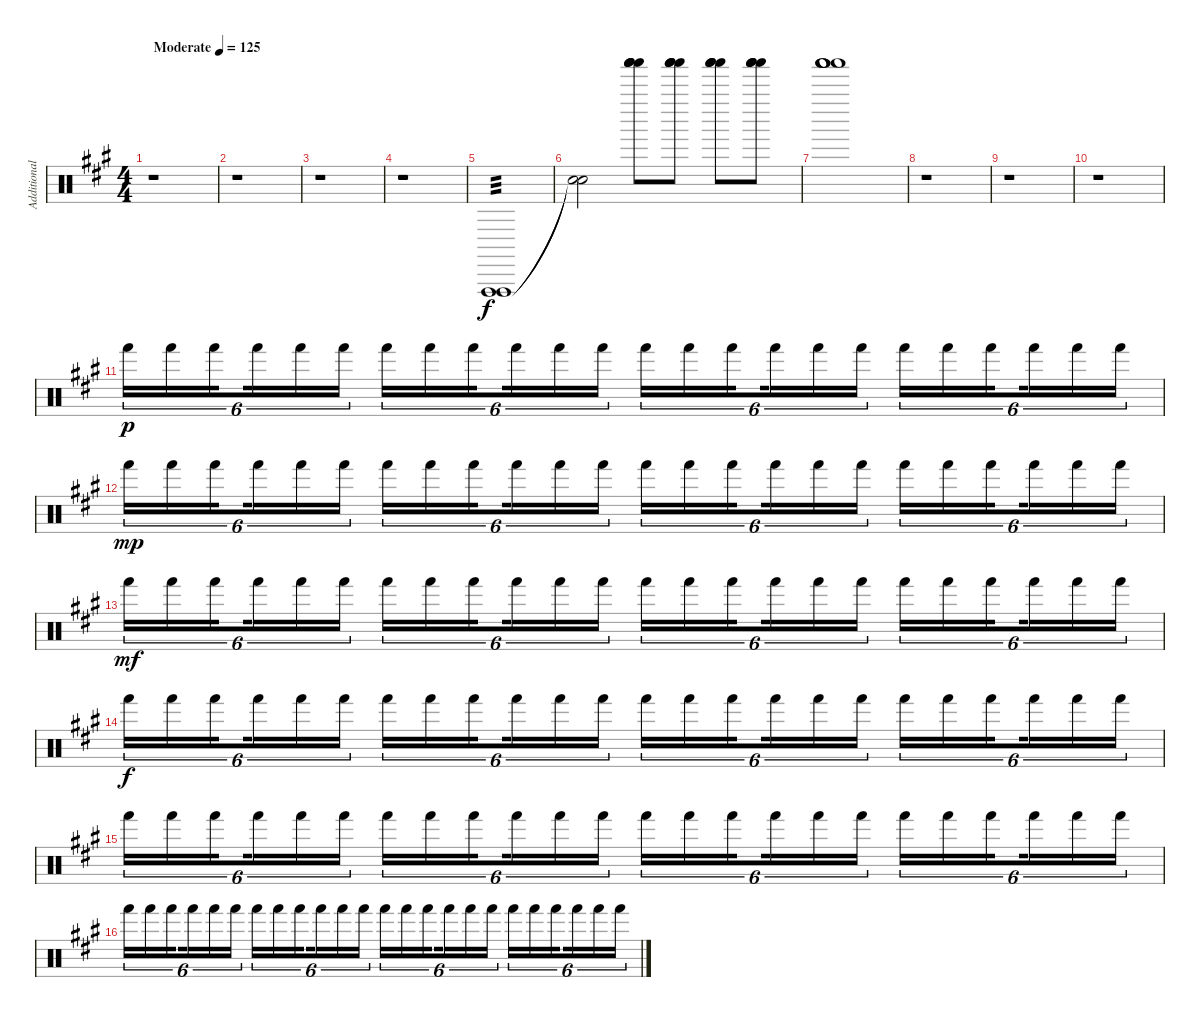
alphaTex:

\track ("Additional Percussion I" "Additional") {instrument percussion}
\staff {score}
\articulation defaults
\ts (4 4)
\tempo (125 "Moderate")
\clef neutral
\ks a
r.1{dy f} |
r.1 |
r.1 |
r.1 |
("Vibraslap (hit)" "Vibraslap (hit)").1{tp 3} |
("Snare (hit)"{t} "Snare (hit)"{t}).2 ("Shaker (hit)" "Shaker (hit)" "Shaker (hit)" "Shaker (hit)").8 ("Shaker (hit)" "Shaker (hit)" "Shaker (hit)" "Shaker (hit)").8 ("Shaker (hit)" "Shaker (hit)" "Shaker (hit)" "Shaker (hit)").8 ("Shaker (hit)" "Shaker (hit)" "Shaker (hit)" "Shaker (hit)").8 |
("Shaker (hit)" "Shaker (hit)" "Shaker (hit)" "Shaker (hit)").1 |
r.1 |
r.1 |
r.1 |
"Hand (hit)".16{tu (6 4) dy p} "Hand (hit)".16{tu (6 4)} "Hand (hit)".16{tu (6 4) beam splitsecondary} "Hand (hit)".16{tu (6 4)} "Hand (hit)".16{tu (6 4)} "Hand (hit)".16{tu (6 4)} "Hand (hit)".16{tu (6 4)} "Hand (hit)".16{tu (6 4)} "Hand (hit)".16{tu (6 4) beam splitsecondary} "Hand (hit)".16{tu (6 4)} "Hand (hit)".16{tu (6 4)} "Hand (hit)".16{tu (6 4)} "Hand (hit)".16{tu (6 4)} "Hand (hit)".16{tu (6 4)} "Hand (hit)".16{tu (6 4) beam splitsecondary} "Hand (hit)".16{tu (6 4)} "Hand (hit)".16{tu (6 4)} "Hand (hit)".16{tu (6 4)} "Hand (hit)".16{tu (6 4)} "Hand (hit)".16{tu (6 4)} "Hand (hit)".16{tu (6 4) beam splitsecondary} "Hand (hit)".16{tu (6 4)} "Hand (hit)".16{tu (6 4)} "Hand (hit)".16{tu (6 4)} |
"Hand (hit)".16{tu (6 4) dy mp} "Hand (hit)".16{tu (6 4)} "Hand (hit)".16{tu (6 4) beam splitsecondary} "Hand (hit)".16{tu (6 4)} "Hand (hit)".16{tu (6 4)} "Hand (hit)".16{tu (6 4)} "Hand (hit)".16{tu (6 4)} "Hand (hit)".16{tu (6 4)} "Hand (hit)".16{tu (6 4) beam splitsecondary} "Hand (hit)".16{tu (6 4)} "Hand (hit)".16{tu (6 4)} "Hand (hit)".16{tu (6 4)} "Hand (hit)".16{tu (6 4)} "Hand (hit)".16{tu (6 4)} "Hand (hit)".16{tu (6 4) beam splitsecondary} "Hand (hit)".16{tu (6 4)} "Hand (hit)".16{tu (6 4)} "Hand (hit)".16{tu (6 4)} "Hand (hit)".16{tu (6 4)} "Hand (hit)".16{tu (6 4)} "Hand (hit)".16{tu (6 4) beam splitsecondary} "Hand (hit)".16{tu (6 4)} "Hand (hit)".16{tu (6 4)} "Hand (hit)".16{tu (6 4)} |
"Hand (hit)".16{tu (6 4) dy mf} "Hand (hit)".16{tu (6 4)} "Hand (hit)".16{tu (6 4) beam splitsecondary} "Hand (hit)".16{tu (6 4)} "Hand (hit)".16{tu (6 4)} "Hand (hit)".16{tu (6 4)} "Hand (hit)".16{tu (6 4)} "Hand (hit)".16{tu (6 4)} "Hand (hit)".16{tu (6 4) beam splitsecondary} "Hand (hit)".16{tu (6 4)} "Hand (hit)".16{tu (6 4)} "Hand (hit)".16{tu (6 4)} "Hand (hit)".16{tu (6 4)} "Hand (hit)".16{tu (6 4)} "Hand (hit)".16{tu (6 4) beam splitsecondary} "Hand (hit)".16{tu (6 4)} "Hand (hit)".16{tu (6 4)} "Hand (hit)".16{tu (6 4)} "Hand (hit)".16{tu (6 4)} "Hand (hit)".16{tu (6 4)} "Hand (hit)".16{tu (6 4) beam splitsecondary} "Hand (hit)".16{tu (6 4)} "Hand (hit)".16{tu (6 4)} "Hand (hit)".16{tu (6 4)} |
"Hand (hit)".16{tu (6 4) dy f} "Hand (hit)".16{tu (6 4)} "Hand (hit)".16{tu (6 4) beam splitsecondary} "Hand (hit)".16{tu (6 4)} "Hand (hit)".16{tu (6 4)} "Hand (hit)".16{tu (6 4)} "Hand (hit)".16{tu (6 4)} "Hand (hit)".16{tu (6 4)} "Hand (hit)".16{tu (6 4) beam splitsecondary} "Hand (hit)".16{tu (6 4)} "Hand (hit)".16{tu (6 4)} "Hand (hit)".16{tu (6 4)} "Hand (hit)".16{tu (6 4)} "Hand (hit)".16{tu (6 4)} "Hand (hit)".16{tu (6 4) beam splitsecondary} "Hand (hit)".16{tu (6 4)} "Hand (hit)".16{tu (6 4)} "Hand (hit)".16{tu (6 4)} "Hand (hit)".16{tu (6 4)} "Hand (hit)".16{tu (6 4)} "Hand (hit)".16{tu (6 4) beam splitsecondary} "Hand (hit)".16{tu (6 4)} "Hand (hit)".16{tu (6 4)} "Hand (hit)".16{tu (6 4)} |
"Hand (hit)".16{tu (6 4)} "Hand (hit)".16{tu (6 4)} "Hand (hit)".16{tu (6 4) beam splitsecondary} "Hand (hit)".16{tu (6 4)} "Hand (hit)".16{tu (6 4)} "Hand (hit)".16{tu (6 4)} "Hand (hit)".16{tu (6 4)} "Hand (hit)".16{tu (6 4)} "Hand (hit)".16{tu (6 4) beam splitsecondary} "Hand (hit)".16{tu (6 4)} "Hand (hit)".16{tu (6 4)} "Hand (hit)".16{tu (6 4)} "Hand (hit)".16{tu (6 4)} "Hand (hit)".16{tu (6 4)} "Hand (hit)".16{tu (6 4) beam splitsecondary} "Hand (hit)".16{tu (6 4)} "Hand (hit)".16{tu (6 4)} "Hand (hit)".16{tu (6 4)} "Hand (hit)".16{tu (6 4)} "Hand (hit)".16{tu (6 4)} "Hand (hit)".16{tu (6 4) beam splitsecondary} "Hand (hit)".16{tu (6 4)} "Hand (hit)".16{tu (6 4)} "Hand (hit)".16{tu (6 4)} |
"Hand (hit)".16{tu (6 4)} "Hand (hit)".16{tu (6 4)} "Hand (hit)".16{tu (6 4) beam splitsecondary} "Hand (hit)".16{tu (6 4)} "Hand (hit)".16{tu (6 4)} "Hand (hit)".16{tu (6 4)} "Hand (hit)".16{tu (6 4)} "Hand (hit)".16{tu (6 4)} "Hand (hit)".16{tu (6 4) beam splitsecondary} "Hand (hit)".16{tu (6 4)} "Hand (hit)".16{tu (6 4)} "Hand (hit)".16{tu (6 4)} "Hand (hit)".16{tu (6 4)} "Hand (hit)".16{tu (6 4)} "Hand (hit)".16{tu (6 4) beam splitsecondary} "Hand (hit)".16{tu (6 4)} "Hand (hit)".16{tu (6 4)} "Hand (hit)".16{tu (6 4)} "Hand (hit)".16{tu (6 4)} "Hand (hit)".16{tu (6 4)} "Hand (hit)".16{tu (6 4) beam splitsecondary} "Hand (hit)".16{tu (6 4)} "Hand (hit)".16{tu (6 4)} "Hand (hit)".16{tu (6 4)}
